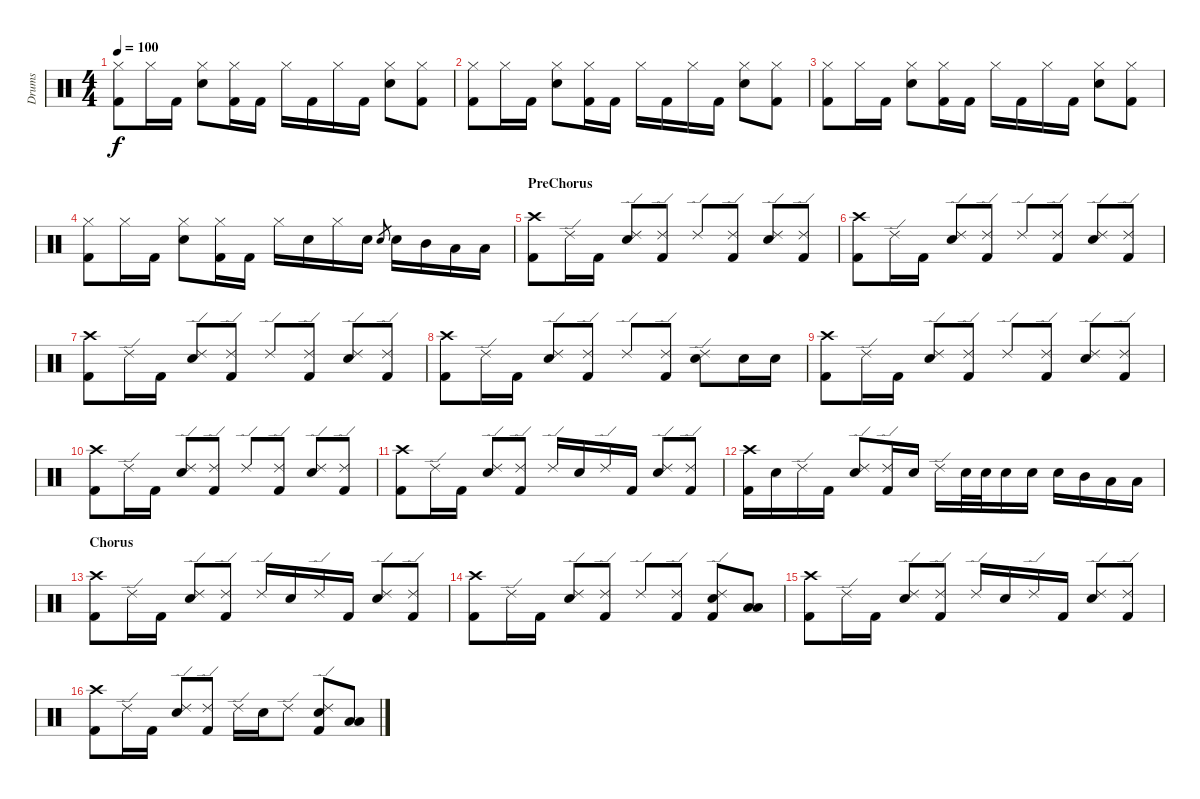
\track ("Drums" "Drums") {instrument percussion}
\staff {score}
\articulation defaults
\ts (4 4)
\tempo 100
\clef neutral
\ks c
("Hi-Hat (closed)" "Kick (hit) 2").8{dy f} "Hi-Hat (closed)".16 "Kick (hit) 2".16 ("Hi-Hat (closed)" "Electric Snare (hit)").8 ("Hi-Hat (closed)" "Kick (hit) 2").16 "Kick (hit) 2".16 "Hi-Hat (closed)".16 "Kick (hit) 2".16 "Hi-Hat (closed)".16 "Kick (hit) 2".16 ("Hi-Hat (closed)" "Electric Snare (hit)").8 ("Hi-Hat (closed)" "Kick (hit) 2").8 |
("Hi-Hat (closed)" "Kick (hit) 2").8 "Hi-Hat (closed)".16 "Kick (hit) 2".16 ("Hi-Hat (closed)" "Electric Snare (hit)").8 ("Hi-Hat (closed)" "Kick (hit) 2").16 "Kick (hit) 2".16 "Hi-Hat (closed)".16 "Kick (hit) 2".16 "Hi-Hat (closed)".16 "Kick (hit) 2".16 ("Hi-Hat (closed)" "Electric Snare (hit)").8 ("Hi-Hat (closed)" "Kick (hit) 2").8 |
("Hi-Hat (closed)" "Kick (hit) 2").8 "Hi-Hat (closed)".16 "Kick (hit) 2".16 ("Hi-Hat (closed)" "Electric Snare (hit)").8 ("Hi-Hat (closed)" "Kick (hit) 2").16 "Kick (hit) 2".16 "Hi-Hat (closed)".16 "Kick (hit) 2".16 "Hi-Hat (closed)".16 "Kick (hit) 2".16 ("Hi-Hat (closed)" "Electric Snare (hit)").8 ("Hi-Hat (closed)" "Kick (hit) 2").8 |
("Hi-Hat (closed)" "Kick (hit) 2").8 "Hi-Hat (closed)".16 "Kick (hit) 2".16 ("Hi-Hat (closed)" "Electric Snare (hit)").8 ("Hi-Hat (closed)" "Kick (hit) 2").16 "Kick (hit) 2".16 "Hi-Hat (closed)".16 "Electric Snare (hit)".16 "Hi-Hat (closed)".16 "Electric Snare (hit)".16 "Electric Snare (hit)".8{gr} "Electric Snare (hit)".16 "Mid Tom (hit)".16 "Low Tom (hit)".16 "Low Floor Tom (hit)".16 |
\section ("" "PreChorus")
("Crash high (hit)" "Kick (hit) 2").8 "Ride (edge) 2".16 "Kick (hit) 2".16 ("Ride (edge) 2" "Electric Snare (hit)").8 ("Ride (edge) 2" "Kick (hit) 2").8 "Ride (edge) 2".8 ("Ride (edge) 2" "Kick (hit) 2").8 ("Ride (edge) 2" "Electric Snare (hit)").8 ("Ride (edge) 2" "Kick (hit) 2").8 |
("Crash high (hit)" "Kick (hit) 2").8 "Ride (edge) 2".16 "Kick (hit) 2".16 ("Ride (edge) 2" "Electric Snare (hit)").8 ("Ride (edge) 2" "Kick (hit) 2").8 "Ride (edge) 2".8 ("Ride (edge) 2" "Kick (hit) 2").8 ("Ride (edge) 2" "Electric Snare (hit)").8 ("Ride (edge) 2" "Kick (hit) 2").8 |
("Crash high (hit)" "Kick (hit) 2").8 "Ride (edge) 2".16 "Kick (hit) 2".16 ("Ride (edge) 2" "Electric Snare (hit)").8 ("Ride (edge) 2" "Kick (hit) 2").8 "Ride (edge) 2".8 ("Ride (edge) 2" "Kick (hit) 2").8 ("Ride (edge) 2" "Electric Snare (hit)").8 ("Ride (edge) 2" "Kick (hit) 2").8 |
("Crash high (hit)" "Kick (hit) 2").8 "Ride (edge) 2".16 "Kick (hit) 2".16 ("Ride (edge) 2" "Electric Snare (hit)").8 ("Ride (edge) 2" "Kick (hit) 2").8 "Ride (edge) 2".8 ("Ride (edge) 2" "Kick (hit) 2").8 ("Ride (edge) 2" "Electric Snare (hit)").8 "Electric Snare (hit)".16 "Electric Snare (hit)".16 |
("Crash high (hit)" "Kick (hit) 2").8 "Ride (edge) 2".16 "Kick (hit) 2".16 ("Ride (edge) 2" "Electric Snare (hit)").8 ("Ride (edge) 2" "Kick (hit) 2").8 "Ride (edge) 2".8 ("Ride (edge) 2" "Kick (hit) 2").8 ("Ride (edge) 2" "Electric Snare (hit)").8 ("Ride (edge) 2" "Kick (hit) 2").8 |
("Crash high (hit)" "Kick (hit) 2").8 "Ride (edge) 2".16 "Kick (hit) 2".16 ("Ride (edge) 2" "Electric Snare (hit)").8 ("Ride (edge) 2" "Kick (hit) 2").8 "Ride (edge) 2".8 ("Ride (edge) 2" "Kick (hit) 2").8 ("Ride (edge) 2" "Electric Snare (hit)").8 ("Ride (edge) 2" "Kick (hit) 2").8 |
("Crash high (hit)" "Kick (hit) 2").8 "Ride (edge) 2".16 "Kick (hit) 2".16 ("Ride (edge) 2" "Electric Snare (hit)").8 ("Ride (edge) 2" "Kick (hit) 2").8 "Ride (edge) 2".16 "Electric Snare (hit)".16 "Ride (edge) 2".16 "Kick (hit) 2".16 ("Ride (edge) 2" "Electric Snare (hit)").8 ("Ride (edge) 2" "Kick (hit) 2").8 |
("Crash high (hit)" "Kick (hit) 2").16 "Electric Snare (hit)".16 "Ride (edge) 2".16 "Kick (hit) 2".16 ("Ride (edge) 2" "Electric Snare (hit)").8 ("Ride (edge) 2" "Kick (hit) 2").16 "Electric Snare (hit)".16 "Ride (edge) 2".16 "Electric Snare (hit)".32 "Electric Snare (hit)".32 "Electric Snare (hit)".16 "Electric Snare (hit)".16 "Electric Snare (hit)".16 "Mid Tom (hit)".16 "Low Tom (hit)".16 "Low Floor Tom (hit)".16 |
\section ("" "Chorus")
("Crash high (hit)" "Kick (hit) 2").8 "Ride (edge) 2".16 "Kick (hit) 2".16 ("Ride (edge) 2" "Electric Snare (hit)").8 ("Ride (edge) 2" "Kick (hit) 2").8 "Ride (edge) 2".16 "Electric Snare (hit)".16 "Ride (edge) 2".16 "Kick (hit) 2".16 ("Ride (edge) 2" "Electric Snare (hit)").8 ("Ride (edge) 2" "Kick (hit) 2").8 |
("Crash high (hit)" "Kick (hit) 2").8 "Ride (edge) 2".16 "Kick (hit) 2".16 ("Ride (edge) 2" "Electric Snare (hit)").8 ("Ride (edge) 2" "Kick (hit) 2").8 "Ride (edge) 2".8 ("Ride (edge) 2" "Kick (hit) 2").8 ("Ride (edge) 2" "Electric Snare (hit)" "Kick (hit) 2").8 ("Low Tom (hit)" "Low Floor Tom (hit)").8 |
("Crash high (hit)" "Kick (hit) 2").8 "Ride (edge) 2".16 "Kick (hit) 2".16 ("Ride (edge) 2" "Electric Snare (hit)").8 ("Ride (edge) 2" "Kick (hit) 2").8 "Ride (edge) 2".16 "Electric Snare (hit)".16 "Ride (edge) 2".16 "Kick (hit) 2".16 ("Ride (edge) 2" "Electric Snare (hit)").8 ("Ride (edge) 2" "Kick (hit) 2").8 |
("Crash high (hit)" "Kick (hit) 2").8 "Ride (edge) 2".16 "Kick (hit) 2".16 ("Ride (edge) 2" "Electric Snare (hit)").8 ("Ride (edge) 2" "Kick (hit) 2").8 "Ride (edge) 2".16 "Electric Snare (hit)".16 "Ride (edge) 2".8 ("Ride (edge) 2" "Electric Snare (hit)" "Kick (hit) 2").8 ("Low Tom (hit)" "Low Floor Tom (hit)").8
